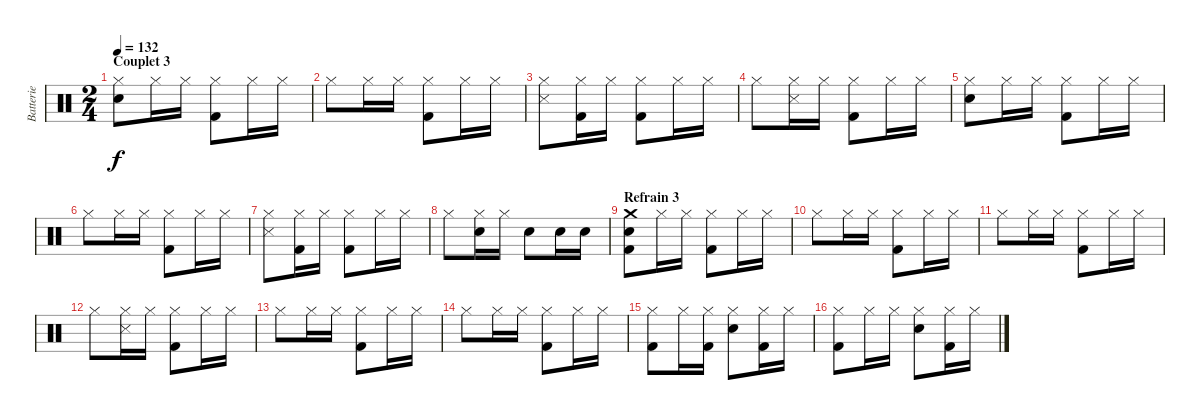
\track ("Batterie" "Batterie") {instrument percussion}
\staff {score}
\articulation defaults
\ts (2 4)
\section ("" "Couplet 3")
\tempo 132
\clef neutral
\ks c
("Hi-Hat (closed)" "Snare (hit) 2").8{dy f} "Hi-Hat (closed)".16 "Hi-Hat (closed)".16 ("Hi-Hat (closed)" "Kick (hit) 2").8 "Hi-Hat (closed)".16 "Hi-Hat (closed)".16 |
"Hi-Hat (closed)".8 "Hi-Hat (closed)".16 "Hi-Hat (closed)".16 ("Hi-Hat (closed)" "Kick (hit) 2").8 "Hi-Hat (closed)".16 "Hi-Hat (closed)".16 |
("Hi-Hat (closed)" "Snare (side stick) 3").8 ("Hi-Hat (closed)" "Kick (hit) 2").16 "Hi-Hat (closed)".16 ("Hi-Hat (closed)" "Kick (hit) 2").8 "Hi-Hat (closed)".16 "Hi-Hat (closed)".16 |
"Hi-Hat (closed)".8 ("Hi-Hat (closed)" "Snare (side stick) 3").16 "Hi-Hat (closed)".16 ("Hi-Hat (closed)" "Kick (hit) 2").8 "Hi-Hat (closed)".16 "Hi-Hat (closed)".16 |
("Hi-Hat (closed)" "Snare (hit) 2").8 "Hi-Hat (closed)".16 "Hi-Hat (closed)".16 ("Hi-Hat (closed)" "Kick (hit) 2").8 "Hi-Hat (closed)".16 "Hi-Hat (closed)".16 |
"Hi-Hat (closed)".8 "Hi-Hat (closed)".16 "Hi-Hat (closed)".16 ("Hi-Hat (closed)" "Kick (hit) 2").8 "Hi-Hat (closed)".16 "Hi-Hat (closed)".16 |
("Hi-Hat (closed)" "Snare (side stick) 3").8 ("Hi-Hat (closed)" "Kick (hit) 2").16 "Hi-Hat (closed)".16 ("Hi-Hat (closed)" "Kick (hit) 2").8 "Hi-Hat (closed)".16 "Hi-Hat (closed)".16 |
"Hi-Hat (closed)".8 ("Hi-Hat (closed)" "Snare (hit) 2").16 "Hi-Hat (closed)".16 "Snare (hit) 2".8 "Snare (hit) 2".16 "Snare (hit) 2".16 |
\section ("" "Refrain 3")
("Crash medium (hit)" "Snare (hit) 2" "Kick (hit) 2").8 "Hi-Hat (closed)".16 "Hi-Hat (closed)".16 ("Hi-Hat (closed)" "Kick (hit) 2").8 "Hi-Hat (closed)".16 "Hi-Hat (closed)".16 |
"Hi-Hat (closed)".8 "Hi-Hat (closed)".16 "Hi-Hat (closed)".16 ("Hi-Hat (closed)" "Kick (hit) 2").8 "Hi-Hat (closed)".16 "Hi-Hat (closed)".16 |
"Hi-Hat (closed)".8 "Hi-Hat (closed)".16 "Hi-Hat (closed)".16 ("Hi-Hat (closed)" "Kick (hit) 2").8 "Hi-Hat (closed)".16 "Hi-Hat (closed)".16 |
"Hi-Hat (closed)".8 ("Hi-Hat (closed)" "Snare (side stick) 3").16 "Hi-Hat (closed)".16 ("Hi-Hat (closed)" "Kick (hit) 2").8 "Hi-Hat (closed)".16 "Hi-Hat (closed)".16 |
"Hi-Hat (closed)".8 "Hi-Hat (closed)".16 "Hi-Hat (closed)".16 ("Hi-Hat (closed)" "Kick (hit) 2").8 "Hi-Hat (closed)".16 "Hi-Hat (closed)".16 |
"Hi-Hat (closed)".8 "Hi-Hat (closed)".16 "Hi-Hat (closed)".16 ("Hi-Hat (closed)" "Kick (hit) 2").8 "Hi-Hat (closed)".16 "Hi-Hat (closed)".16 |
("Hi-Hat (closed)" "Kick (hit) 2").8 "Hi-Hat (closed)".16 ("Hi-Hat (closed)" "Kick (hit) 2").16 ("Hi-Hat (closed)" "Snare (hit) 2").8 ("Hi-Hat (closed)" "Kick (hit) 2").16 "Hi-Hat (closed)".16 |
("Hi-Hat (closed)" "Kick (hit) 2").8 "Hi-Hat (closed)".16 "Hi-Hat (closed)".16 ("Hi-Hat (closed)" "Snare (hit) 2").8 ("Hi-Hat (closed)" "Kick (hit) 2").16 "Hi-Hat (closed)".16
